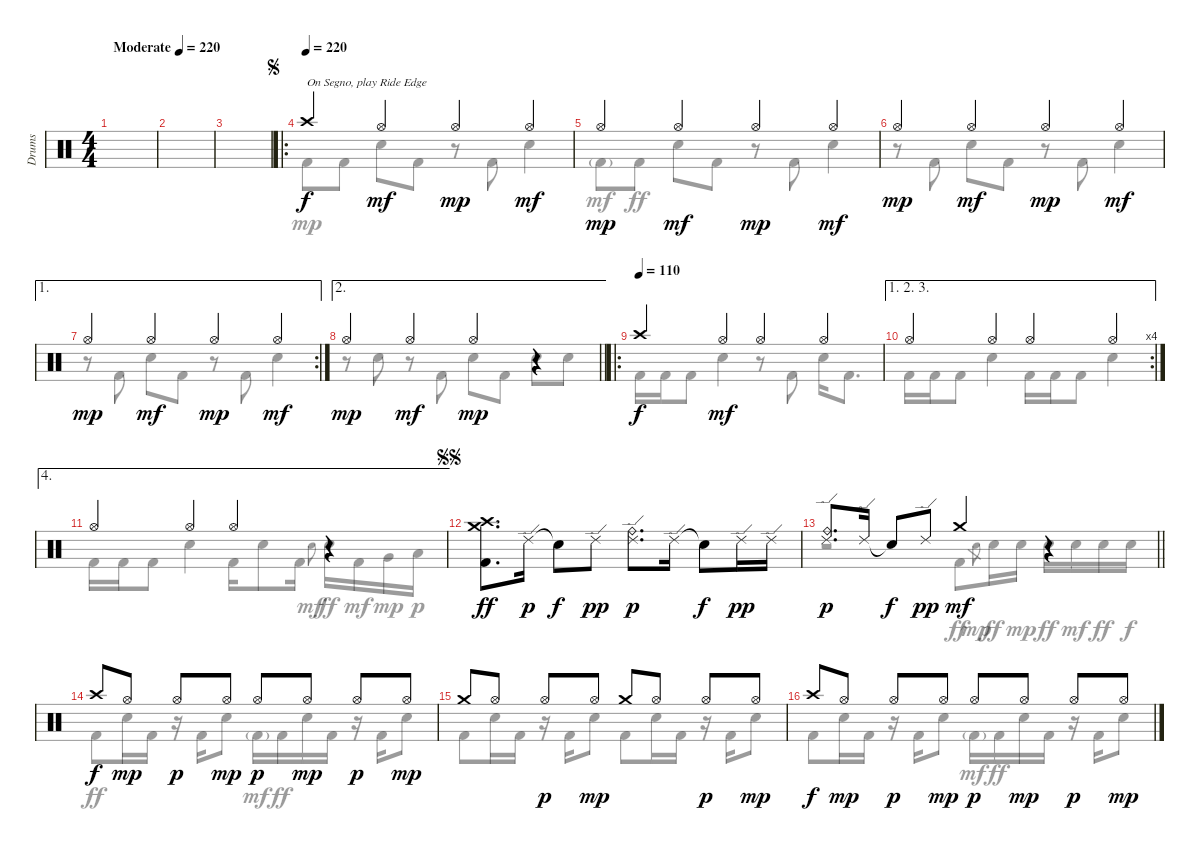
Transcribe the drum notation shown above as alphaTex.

\track ("Drums" "Drums") {instrument percussion}
\staff {score}
\articulation defaults
\voice
\ts (4 4)
\tempo (220 "Moderate")
\clef neutral
\ks c
|
|
|
\ro
\jump segno
\tempo (220)
"Crash high (hit)".4{txt "On Segno, play Ride Edge"} "Hi-Hat (open)".4{dy mf} "Hi-Hat (open)".4{dy mp} "Hi-Hat (open)".4{dy mf} |
"Hi-Hat (open)".4{dy mp} "Hi-Hat (open)".4{dy mf} "Hi-Hat (open)".4{dy mp} "Hi-Hat (open)".4{dy mf} |
"Hi-Hat (open)".4{dy mp} "Hi-Hat (open)".4{dy mf} "Hi-Hat (open)".4{dy mp} "Hi-Hat (open)".4{dy mf} |
\ae 1
\rc 2 "Hi-Hat (open)".4{dy mp} "Hi-Hat (open)".4{dy mf} "Hi-Hat (open)".4{dy mp} "Hi-Hat (open)".4{dy mf}
|
\ae 2
\barLineRight lightlight "Hi-Hat (open)".4{dy mp} "Hi-Hat (open)".4{dy mf} "Hi-Hat (open)".4{dy mp}
r.4 |
\ro
\tempo (110)
"Crash high (hit)".4{dy f} "Hi-Hat (open)".4{dy mf} "Hi-Hat (open)".4 "Hi-Hat (open)".4 |
\ae (1 2 3)
\rc 4 "Hi-Hat (open)".4 "Hi-Hat (open)".4 "Hi-Hat (open)".4 "Hi-Hat (open)".4
|
\ae 4 "Hi-Hat (open)".4 "Hi-Hat (open)".4 "Hi-Hat (open)".4
r.4 |
\jump segnosegno
("Crash high (hit)" "Crash medium (hit)" "Kick (hit) 2").8{d dy ff} "Ride (edge) 2".16{dy p} "Snare (hit)"{t}.8{dy f} "Ride (edge) 2".8{dy pp} ("Ride (edge) 2" "Ride (bell)").8{d dy p} "Ride (edge) 2".16 "Snare (hit)"{t}.8{dy f} "Ride (edge) 2".16{dy pp} "Ride (edge) 2".16 |
\barLineRight lightlight
("Ride (edge) 2" "Ride (bell)").8{d dy p} "Ride (edge) 2".16 "Snare (hit)"{t}.8{dy f} "Ride (edge) 2".8{dy pp} "Crash medium (hit)".4{dy mf} r.4 |
"Crash high (hit)".8{dy f} "Hi-Hat (open)".8{dy mp} "Hi-Hat (open)".8{dy p} "Hi-Hat (open)".8{dy mp} "Hi-Hat (open)".8{dy p} "Hi-Hat (open)".8{dy mp} "Hi-Hat (open)".8{dy p} "Hi-Hat (open)".8{dy mp} |
"Crash medium (hit)".8 "Hi-Hat (open)".8 "Hi-Hat (open)".8{dy p} "Hi-Hat (open)".8{dy mp} "Crash medium (hit)".8 "Hi-Hat (open)".8 "Hi-Hat (open)".8{dy p} "Hi-Hat (open)".8{dy mp} |
"Crash high (hit)".8{dy f} "Hi-Hat (open)".8{dy mp} "Hi-Hat (open)".8{dy p} "Hi-Hat (open)".8{dy mp} "Hi-Hat (open)".8{dy p} "Hi-Hat (open)".8{dy mp} "Hi-Hat (open)".8{dy p} "Hi-Hat (open)".8{dy mp}
\voice
\clef neutral
\ottava regular
\simile none
\ks c
|
|
|
"Kick (hit) 2".8 "Kick (hit) 2".8 "Electric Snare (hit)".8 "Kick (hit) 2".8 r.8 "Kick (hit) 2".8 "Electric Snare (hit)".4 |
"Kick (hit) 2"{g}.8{dy mf} "Kick (hit) 2".8{dy ff} "Electric Snare (hit)".8 "Kick (hit) 2".8 r.8 "Kick (hit) 2".8 "Electric Snare (hit)".4 |
r.8 "Kick (hit) 2".8 "Electric Snare (hit)".8 "Kick (hit) 2".8 r.8 "Kick (hit) 2".8 "Electric Snare (hit)".4 |
r.8 "Kick (hit) 2".8 "Electric Snare (hit)".8 "Kick (hit) 2".8 r.8 "Kick (hit) 2".8 "Electric Snare (hit)".4 |
\barLineRight lightlight
r.8 "Electric Snare (hit)".8 r.8 "Kick (hit) 2".8 "Electric Snare (hit)".8 "Kick (hit) 2".8 "Electric Snare (hit)".8 "Electric Snare (hit)".8 |
"Kick (hit) 2".16 "Kick (hit) 2".16 "Kick (hit) 2".8 "Electric Snare (hit)".4 r.8 "Kick (hit) 2".8 "Electric Snare (hit)".16 "Kick (hit) 2".8{d} |
"Kick (hit) 2".16 "Kick (hit) 2".16 "Kick (hit) 2".8 "Electric Snare (hit)".4 "Kick (hit) 2".16 "Kick (hit) 2".16 "Kick (hit) 2".8 "Electric Snare (hit)".4 |
"Kick (hit) 2".16 "Kick (hit) 2".16 "Kick (hit) 2".8 "Electric Snare (hit)".4 "Kick (hit) 2".16 "Electric Snare (hit)".8 "Kick (hit) 2".16 "Electric Snare (hit)".8{gr onbeat dy mf} "Electric Snare (hit)".16{dy ff} "Kick (hit) 2".16{dy mf} "Very Low Tom (hit)".16{dy mp} "Low Floor Tom (hit)".16{dy p} |
|
\barLineRight lightlight
r.2 "Kick (hit) 2".8{dy ff} "Electric Snare (hit)".8{gr dy mp} "Electric Snare (hit)".16{dy ff} "Electric Snare (hit)".16{dy mp} "Electric Snare (hit)".16{dy ff} "Electric Snare (hit)".16{dy mf} "Electric Snare (hit)".16{dy ff} "Electric Snare (hit)".16{dy f} |
"Kick (hit) 2".8{dy ff} "Electric Snare (hit)".16 "Kick (hit) 2".16 r.16 "Kick (hit) 2".16 "Electric Snare (hit)".8 "Kick (hit) 2"{g}.16{dy mf} "Kick (hit) 2".16{dy ff} "Electric Snare (hit)".16 "Kick (hit) 2".16 r.16 "Kick (hit) 2".16 "Electric Snare (hit)".8 |
"Kick (hit) 2".8 "Electric Snare (hit)".16 "Kick (hit) 2".16 r.16 "Kick (hit) 2".16 "Electric Snare (hit)".8 "Kick (hit) 2".8 "Electric Snare (hit)".16 "Kick (hit) 2".16 r.16 "Kick (hit) 2".16 "Electric Snare (hit)".8 |
"Kick (hit) 2".8 "Electric Snare (hit)".16 "Kick (hit) 2".16 r.16 "Kick (hit) 2".16 "Electric Snare (hit)".8 "Kick (hit) 2"{g}.16{dy mf} "Kick (hit) 2".16{dy ff} "Electric Snare (hit)".16 "Kick (hit) 2".16 r.16 "Kick (hit) 2".16 "Electric Snare (hit)".8
